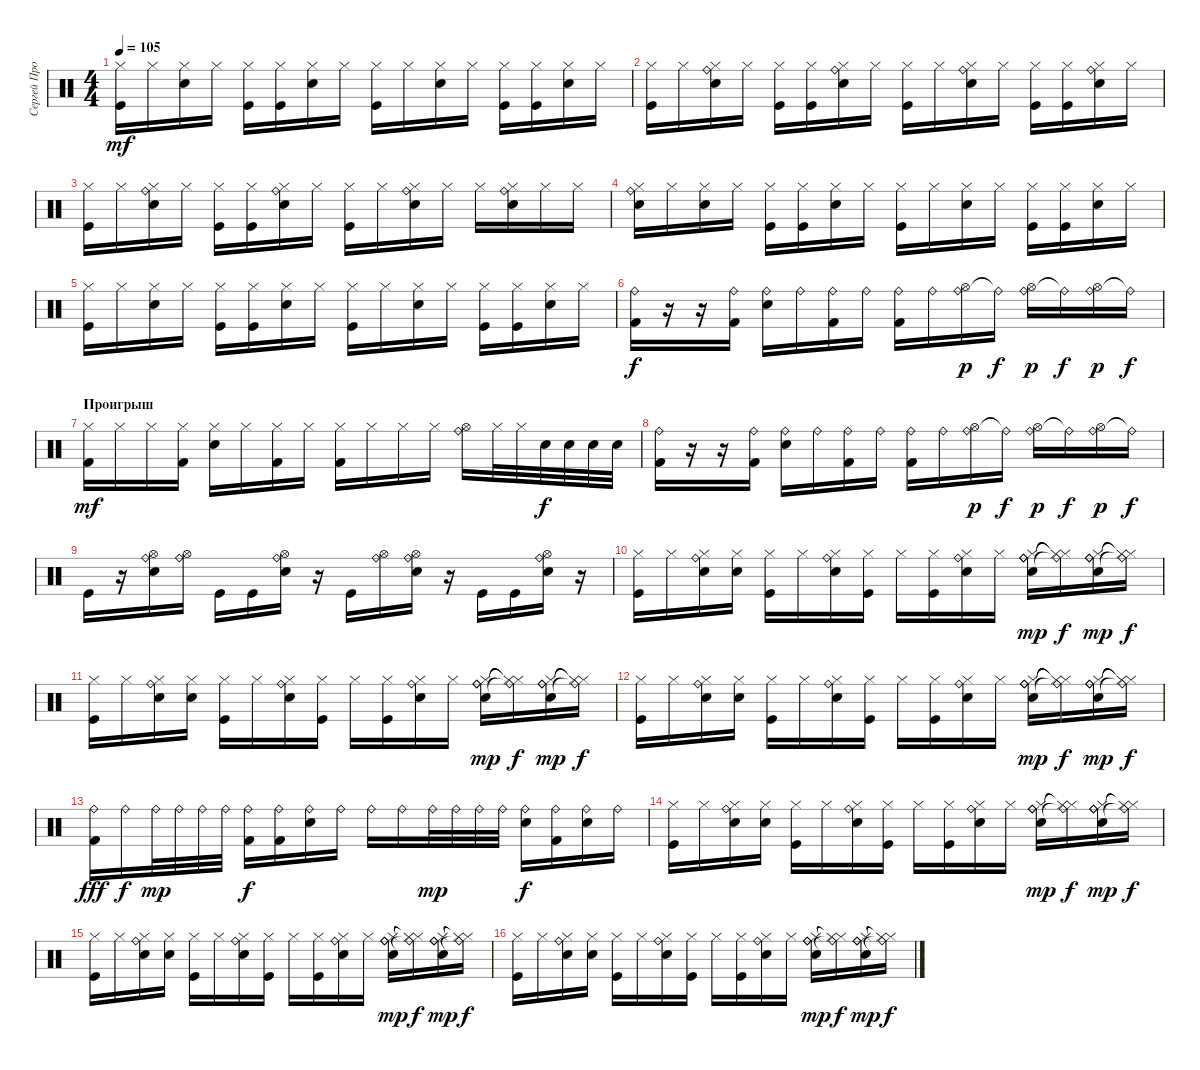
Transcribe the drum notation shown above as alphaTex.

\track ("Сергей Прокофьев" "Сергей Про") {instrument percussion}
\staff {score}
\articulation defaults
\ts (4 4)
\tempo 105
\clef neutral
\ks c
("Hi-Hat (closed)" "Kick (hit)").16{dy mf} "Hi-Hat (closed)".16 ("Hi-Hat (closed)" "Snare (hit) 2").16 "Hi-Hat (closed)".16 ("Hi-Hat (closed)" "Kick (hit)").16 ("Hi-Hat (closed)" "Kick (hit)").16 ("Hi-Hat (closed)" "Snare (hit) 2").16 "Hi-Hat (closed)".16 ("Hi-Hat (closed)" "Kick (hit)").16 "Hi-Hat (closed)".16 ("Hi-Hat (closed)" "Snare (hit) 2").16 "Hi-Hat (closed)".16 ("Hi-Hat (closed)" "Kick (hit)").16 ("Hi-Hat (closed)" "Kick (hit)").16 ("Hi-Hat (closed)" "Snare (hit) 2").16 "Hi-Hat (closed)".16 |
("Hi-Hat (closed)" "Kick (hit)").16 "Hi-Hat (closed)".16 ("Hi-Hat (closed)" "Snare (hit) 2" "Ride (bell)").16 "Hi-Hat (closed)".16 ("Hi-Hat (closed)" "Kick (hit)").16 ("Hi-Hat (closed)" "Kick (hit)").16 ("Hi-Hat (closed)" "Snare (hit) 2" "Ride (bell)").16 "Hi-Hat (closed)".16 ("Hi-Hat (closed)" "Kick (hit)").16 "Hi-Hat (closed)".16 ("Hi-Hat (closed)" "Snare (hit) 2" "Ride (bell)").16 "Hi-Hat (closed)".16 ("Hi-Hat (closed)" "Kick (hit)").16 ("Hi-Hat (closed)" "Kick (hit)").16 ("Hi-Hat (closed)" "Snare (hit) 2" "Ride (bell)").16 "Hi-Hat (closed)".16 |
("Hi-Hat (closed)" "Kick (hit)").16 "Hi-Hat (closed)".16 ("Hi-Hat (closed)" "Snare (hit) 2" "Ride (bell)").16 "Hi-Hat (closed)".16 ("Hi-Hat (closed)" "Kick (hit)").16 ("Hi-Hat (closed)" "Kick (hit)").16 ("Hi-Hat (closed)" "Snare (hit) 2" "Ride (bell)").16 "Hi-Hat (closed)".16 ("Hi-Hat (closed)" "Kick (hit)").16 "Hi-Hat (closed)".16 ("Hi-Hat (closed)" "Snare (hit) 2" "Ride (bell)").16 "Hi-Hat (closed)".16 "Hi-Hat (closed)".16 ("Hi-Hat (closed)" "Snare (hit) 2" "Ride (bell)").16 "Hi-Hat (closed)".16 "Hi-Hat (closed)".16 |
("Hi-Hat (closed)" "Snare (hit) 2" "Ride (bell)").16 "Hi-Hat (closed)".16 ("Hi-Hat (closed)" "Snare (hit) 2").16 "Hi-Hat (closed)".16 ("Hi-Hat (closed)" "Kick (hit)").16 ("Hi-Hat (closed)" "Kick (hit)").16 ("Hi-Hat (closed)" "Snare (hit) 2").16 "Hi-Hat (closed)".16 ("Hi-Hat (closed)" "Kick (hit)").16 "Hi-Hat (closed)".16 ("Hi-Hat (closed)" "Snare (hit) 2").16 "Hi-Hat (closed)".16 ("Hi-Hat (closed)" "Kick (hit)").16 ("Hi-Hat (closed)" "Kick (hit)").16 ("Hi-Hat (closed)" "Snare (hit) 2").16 "Hi-Hat (closed)".16 |
("Hi-Hat (closed)" "Kick (hit)").16 "Hi-Hat (closed)".16 ("Hi-Hat (closed)" "Snare (hit) 2").16 "Hi-Hat (closed)".16 ("Hi-Hat (closed)" "Kick (hit)").16 ("Hi-Hat (closed)" "Kick (hit)").16 ("Hi-Hat (closed)" "Snare (hit) 2").16 "Hi-Hat (closed)".16 ("Hi-Hat (closed)" "Kick (hit)").16 "Hi-Hat (closed)".16 ("Hi-Hat (closed)" "Snare (hit) 2").16 "Hi-Hat (closed)".16 ("Hi-Hat (closed)" "Kick (hit)").16 ("Hi-Hat (closed)" "Kick (hit)").16 ("Hi-Hat (closed)" "Snare (hit) 2").16 "Hi-Hat (closed)".16 |
("Ride (bell)" "Kick (hit) 2").16{dy f} r.16 r.16 ("Ride (bell)" "Kick (hit) 2").16 ("Ride (bell)" "Snare (hit) 2").16 "Ride (bell)".16 ("Ride (bell)" "Kick (hit) 2").16 "Ride (bell)".16 ("Ride (bell)" "Kick (hit) 2").16 "Ride (bell)".16 ("Ride (bell)" "Hi-Hat (open)").16{dy p} "Ride (bell)"{t}.16{dy f} ("Ride (bell)" "Hi-Hat (open)").16{dy p} "Ride (bell)"{t}.16{dy f} ("Ride (bell)" "Hi-Hat (open)").16{dy p} "Ride (bell)"{t}.16{dy f} |
\section ("" "Проигрыш")
("Hi-Hat (closed)" "Kick (hit) 2").16{dy mf} "Hi-Hat (closed)".16 "Hi-Hat (closed)".16 ("Hi-Hat (closed)" "Kick (hit) 2").16 ("Hi-Hat (closed)" "Snare (hit) 2").16 "Hi-Hat (closed)".16 ("Hi-Hat (closed)" "Kick (hit) 2").16 "Hi-Hat (closed)".16 ("Hi-Hat (closed)" "Kick (hit) 2").16 "Hi-Hat (closed)".16 "Hi-Hat (closed)".16 "Hi-Hat (closed)".16 ("Ride (bell)" "Hi-Hat (open)").16 "Hi-Hat (closed)".32 "Hi-Hat (closed)".32 "Snare (hit) 2".32{dy f} "Snare (hit) 2".32 "Snare (hit) 2".32 "Snare (hit) 2".32 |
("Ride (bell)" "Kick (hit) 2").16 r.16 r.16 ("Ride (bell)" "Kick (hit) 2").16 ("Ride (bell)" "Snare (hit) 2").16 "Ride (bell)".16 ("Ride (bell)" "Kick (hit) 2").16 "Ride (bell)".16 ("Ride (bell)" "Kick (hit) 2").16 "Ride (bell)".16 ("Ride (bell)" "Hi-Hat (open)").16{dy p} "Ride (bell)"{t}.16{dy f} ("Ride (bell)" "Hi-Hat (open)").16{dy p} "Ride (bell)"{t}.16{dy f} ("Ride (bell)" "Hi-Hat (open)").16{dy p} "Ride (bell)"{t}.16{dy f} |
"Kick (hit)".16 r.16 ("Hi-Hat (open)" "Snare (hit) 2" "Ride (bell)").16 ("Hi-Hat (open)" "Ride (bell)").16 "Kick (hit)".16 "Kick (hit)".16 ("Hi-Hat (open)" "Snare (hit) 2" "Ride (bell)").16 r.16 "Kick (hit)".16 ("Hi-Hat (open)" "Ride (bell)").16 ("Hi-Hat (open)" "Snare (hit) 2" "Ride (bell)").16 r.16 "Kick (hit)".16 "Kick (hit)".16 ("Hi-Hat (open)" "Snare (hit) 2" "Ride (bell)").16 r.16 |
("Hi-Hat (closed)" "Kick (hit)").16 "Hi-Hat (closed)".16 ("Hi-Hat (closed)" "Snare (hit) 2" "Ride (bell)").16 ("Hi-Hat (closed)" "Snare (hit) 2").16 ("Hi-Hat (closed)" "Kick (hit)").16 "Hi-Hat (closed)".16 ("Hi-Hat (closed)" "Snare (hit) 2" "Ride (bell)").16 ("Hi-Hat (closed)" "Kick (hit)").16 "Hi-Hat (closed)".16 ("Hi-Hat (closed)" "Kick (hit)").16 ("Hi-Hat (closed)" "Snare (hit) 2" "Ride (bell)").16 "Hi-Hat (closed)".16 ("Ride (bell)" "Snare (hit) 2" "Ride (bell)" "Hi-Hat (closed)").16{dy mp} ("Hi-Hat (closed)"{t} "Ride (bell)"{t} "Hi-Hat (closed)"{t}).16{dy f} ("Ride (bell)" "Snare (hit) 2" "Ride (bell)" "Hi-Hat (closed)").16{dy mp} ("Hi-Hat (closed)"{t} "Ride (bell)"{t} "Hi-Hat (closed)"{t}).16{dy f} |
("Hi-Hat (closed)" "Kick (hit)").16 "Hi-Hat (closed)".16 ("Hi-Hat (closed)" "Snare (hit) 2" "Ride (bell)").16 ("Hi-Hat (closed)" "Snare (hit) 2").16 ("Hi-Hat (closed)" "Kick (hit)").16 "Hi-Hat (closed)".16 ("Hi-Hat (closed)" "Snare (hit) 2" "Ride (bell)").16 ("Hi-Hat (closed)" "Kick (hit)").16 "Hi-Hat (closed)".16 ("Hi-Hat (closed)" "Kick (hit)").16 ("Hi-Hat (closed)" "Snare (hit) 2" "Ride (bell)").16 "Hi-Hat (closed)".16 ("Ride (bell)" "Snare (hit) 2" "Ride (bell)" "Hi-Hat (closed)").16{dy mp} ("Hi-Hat (closed)"{t} "Ride (bell)"{t} "Hi-Hat (closed)"{t}).16{dy f} ("Ride (bell)" "Snare (hit) 2" "Ride (bell)" "Hi-Hat (closed)").16{dy mp} ("Hi-Hat (closed)"{t} "Ride (bell)"{t} "Hi-Hat (closed)"{t}).16{dy f} |
("Hi-Hat (closed)" "Kick (hit)").16 "Hi-Hat (closed)".16 ("Hi-Hat (closed)" "Snare (hit) 2" "Ride (bell)").16 ("Hi-Hat (closed)" "Snare (hit) 2").16 ("Hi-Hat (closed)" "Kick (hit)").16 "Hi-Hat (closed)".16 ("Hi-Hat (closed)" "Snare (hit) 2" "Ride (bell)").16 ("Hi-Hat (closed)" "Kick (hit)").16 "Hi-Hat (closed)".16 ("Hi-Hat (closed)" "Kick (hit)").16 ("Hi-Hat (closed)" "Snare (hit) 2" "Ride (bell)").16 "Hi-Hat (closed)".16 ("Ride (bell)" "Snare (hit) 2" "Ride (bell)" "Hi-Hat (closed)").16{dy mp} ("Hi-Hat (closed)"{t} "Ride (bell)"{t} "Hi-Hat (closed)"{t}).16{dy f} ("Ride (bell)" "Snare (hit) 2" "Ride (bell)" "Hi-Hat (closed)").16{dy mp} ("Hi-Hat (closed)"{t} "Ride (bell)"{t} "Hi-Hat (closed)"{t}).16{dy f} |
("Ride (bell)" "Kick (hit) 2").16{dy fff} "Ride (bell)".16{dy f} "Ride (bell)".32{dy mp} "Ride (bell)".32 "Ride (bell)".32 "Ride (bell)".32 ("Ride (bell)" "Kick (hit) 2").16{dy f} ("Ride (bell)" "Kick (hit) 2").16 ("Ride (bell)" "Snare (hit) 2").16 "Ride (bell)".16 "Ride (bell)".16 "Ride (bell)".16 "Ride (bell)".32{dy mp} "Ride (bell)".32 "Ride (bell)".32 "Ride (bell)".32 ("Ride (bell)" "Snare (hit) 2").16{dy f} ("Ride (bell)" "Kick (hit) 2").16 ("Ride (bell)" "Snare (hit) 2").16 "Ride (bell)".16 |
("Hi-Hat (closed)" "Kick (hit)").16 "Hi-Hat (closed)".16 ("Hi-Hat (closed)" "Snare (hit) 2" "Ride (bell)").16 ("Hi-Hat (closed)" "Snare (hit) 2").16 ("Hi-Hat (closed)" "Kick (hit)").16 "Hi-Hat (closed)".16 ("Hi-Hat (closed)" "Snare (hit) 2" "Ride (bell)").16 ("Hi-Hat (closed)" "Kick (hit)").16 "Hi-Hat (closed)".16 ("Hi-Hat (closed)" "Kick (hit)").16 ("Hi-Hat (closed)" "Snare (hit) 2" "Ride (bell)").16 "Hi-Hat (closed)".16 ("Ride (bell)" "Snare (hit) 2" "Ride (bell)" "Hi-Hat (closed)").16{dy mp} ("Hi-Hat (closed)"{t} "Ride (bell)"{t} "Hi-Hat (closed)"{t}).16{dy f} ("Ride (bell)" "Snare (hit) 2" "Ride (bell)" "Hi-Hat (closed)").16{dy mp} ("Hi-Hat (closed)"{t} "Ride (bell)"{t} "Hi-Hat (closed)"{t}).16{dy f} |
("Hi-Hat (closed)" "Kick (hit)").16 "Hi-Hat (closed)".16 ("Hi-Hat (closed)" "Snare (hit) 2" "Ride (bell)").16 ("Hi-Hat (closed)" "Snare (hit) 2").16 ("Hi-Hat (closed)" "Kick (hit)").16 "Hi-Hat (closed)".16 ("Hi-Hat (closed)" "Snare (hit) 2" "Ride (bell)").16 ("Hi-Hat (closed)" "Kick (hit)").16 "Hi-Hat (closed)".16 ("Hi-Hat (closed)" "Kick (hit)").16 ("Hi-Hat (closed)" "Snare (hit) 2" "Ride (bell)").16 "Hi-Hat (closed)".16 ("Ride (bell)" "Snare (hit) 2" "Ride (bell)" "Hi-Hat (closed)").16{dy mp} ("Hi-Hat (closed)"{t} "Ride (bell)"{t} "Hi-Hat (closed)"{t}).16{dy f} ("Ride (bell)" "Snare (hit) 2" "Ride (bell)" "Hi-Hat (closed)").16{dy mp} ("Hi-Hat (closed)"{t} "Ride (bell)"{t} "Hi-Hat (closed)"{t}).16{dy f} |
("Hi-Hat (closed)" "Kick (hit)").16 "Hi-Hat (closed)".16 ("Hi-Hat (closed)" "Snare (hit) 2" "Ride (bell)").16 ("Hi-Hat (closed)" "Snare (hit) 2").16 ("Hi-Hat (closed)" "Kick (hit)").16 "Hi-Hat (closed)".16 ("Hi-Hat (closed)" "Snare (hit) 2" "Ride (bell)").16 ("Hi-Hat (closed)" "Kick (hit)").16 "Hi-Hat (closed)".16 ("Hi-Hat (closed)" "Kick (hit)").16 ("Hi-Hat (closed)" "Snare (hit) 2" "Ride (bell)").16 "Hi-Hat (closed)".16 ("Ride (bell)" "Snare (hit) 2" "Ride (bell)" "Hi-Hat (closed)").16{dy mp} ("Hi-Hat (closed)"{t} "Ride (bell)"{t} "Hi-Hat (closed)"{t}).16{dy f} ("Ride (bell)" "Snare (hit) 2" "Ride (bell)" "Hi-Hat (closed)").16{dy mp} ("Hi-Hat (closed)"{t} "Ride (bell)"{t} "Hi-Hat (closed)"{t}).16{dy f}
